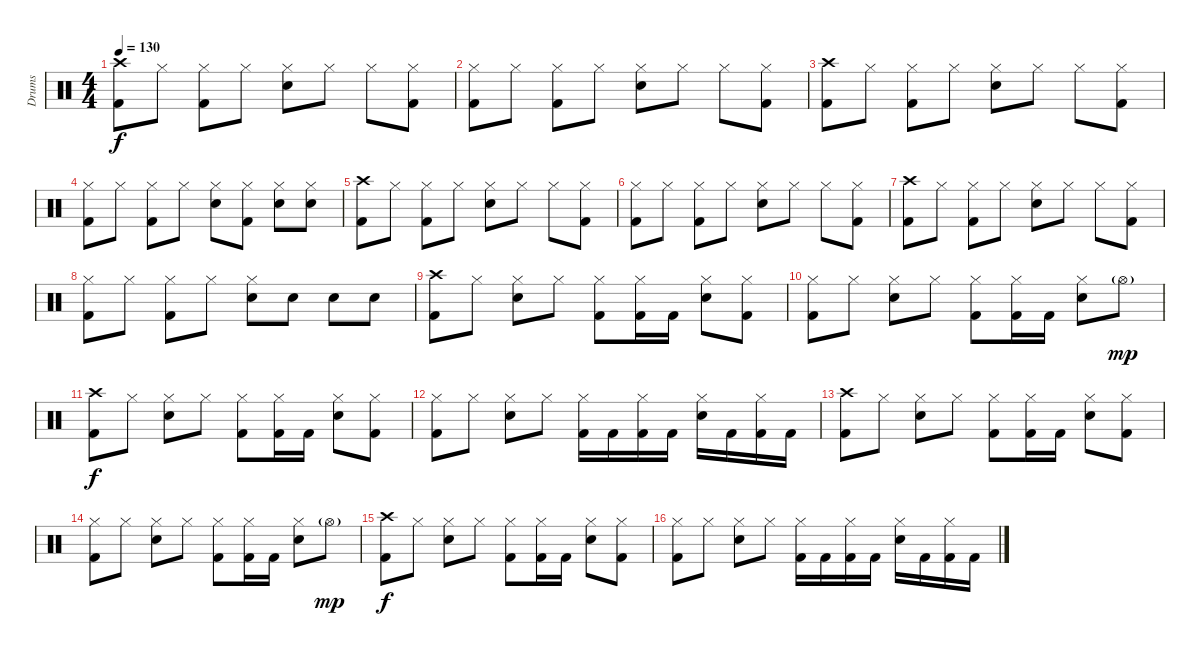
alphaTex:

\track ("Drums" "Drums") {instrument percussion}
\staff {score}
\articulation defaults
\ts (4 4)
\tempo 130
\clef neutral
\ks c
("Crash high (hit)" "Kick (hit) 2").8{dy f} "Hi-Hat (closed)".8 ("Hi-Hat (closed)" "Kick (hit) 2").8 "Hi-Hat (closed)".8 ("Electric Snare (hit)" "Hi-Hat (closed)").8 "Hi-Hat (closed)".8 "Hi-Hat (closed)".8 ("Hi-Hat (closed)" "Kick (hit) 2").8 |
("Hi-Hat (closed)" "Kick (hit) 2").8 "Hi-Hat (closed)".8 ("Kick (hit) 2" "Hi-Hat (closed)").8 "Hi-Hat (closed)".8 ("Electric Snare (hit)" "Hi-Hat (closed)").8 "Hi-Hat (closed)".8 "Hi-Hat (closed)".8 ("Hi-Hat (closed)" "Kick (hit) 2").8 |
("Crash high (hit)" "Kick (hit) 2").8 "Hi-Hat (closed)".8 ("Hi-Hat (closed)" "Kick (hit) 2").8 "Hi-Hat (closed)".8 ("Electric Snare (hit)" "Hi-Hat (closed)").8 "Hi-Hat (closed)".8 "Hi-Hat (closed)".8 ("Hi-Hat (closed)" "Kick (hit) 2").8 |
("Hi-Hat (closed)" "Kick (hit) 2").8 "Hi-Hat (closed)".8 ("Kick (hit) 2" "Hi-Hat (closed)").8 "Hi-Hat (closed)".8 ("Electric Snare (hit)" "Hi-Hat (closed)").8 ("Kick (hit) 2" "Hi-Hat (closed)").8 ("Electric Snare (hit)" "Hi-Hat (closed)").8 ("Electric Snare (hit)" "Hi-Hat (closed)").8 |
("Crash high (hit)" "Kick (hit) 2").8 "Hi-Hat (closed)".8 ("Hi-Hat (closed)" "Kick (hit) 2").8 "Hi-Hat (closed)".8 ("Electric Snare (hit)" "Hi-Hat (closed)").8 "Hi-Hat (closed)".8 "Hi-Hat (closed)".8 ("Hi-Hat (closed)" "Kick (hit) 2").8 |
("Hi-Hat (closed)" "Kick (hit) 2").8 "Hi-Hat (closed)".8 ("Kick (hit) 2" "Hi-Hat (closed)").8 "Hi-Hat (closed)".8 ("Electric Snare (hit)" "Hi-Hat (closed)").8 "Hi-Hat (closed)".8 "Hi-Hat (closed)".8 ("Hi-Hat (closed)" "Kick (hit) 2").8 |
("Crash high (hit)" "Kick (hit) 2").8 "Hi-Hat (closed)".8 ("Hi-Hat (closed)" "Kick (hit) 2").8 "Hi-Hat (closed)".8 ("Electric Snare (hit)" "Hi-Hat (closed)").8 "Hi-Hat (closed)".8 "Hi-Hat (closed)".8 ("Hi-Hat (closed)" "Kick (hit) 2").8 |
("Hi-Hat (closed)" "Kick (hit) 2").8 "Hi-Hat (closed)".8 ("Kick (hit) 2" "Hi-Hat (closed)").8 "Hi-Hat (closed)".8 ("Electric Snare (hit)" "Hi-Hat (closed)").8 "Electric Snare (hit)".8 "Electric Snare (hit)".8 "Electric Snare (hit)".8 |
("Crash high (hit)" "Kick (hit) 2").8 "Hi-Hat (closed)".8 ("Electric Snare (hit)" "Hi-Hat (closed)").8 "Hi-Hat (closed)".8 ("Hi-Hat (closed)" "Kick (hit) 2").8 ("Hi-Hat (closed)" "Kick (hit) 2").16 "Kick (hit) 2".16 ("Hi-Hat (closed)" "Electric Snare (hit)").8 ("Hi-Hat (closed)" "Kick (hit) 2").8 |
("Hi-Hat (closed)" "Kick (hit) 2").8 "Hi-Hat (closed)".8 ("Electric Snare (hit)" "Hi-Hat (closed)").8 "Hi-Hat (closed)".8 ("Hi-Hat (closed)" "Kick (hit) 2").8 ("Hi-Hat (closed)" "Kick (hit) 2").16 "Kick (hit) 2".16 ("Hi-Hat (closed)" "Electric Snare (hit)").8 "Hi-Hat (open)"{g}.8{dy mp} |
("Crash high (hit)" "Kick (hit) 2").8{dy f} "Hi-Hat (closed)".8 ("Electric Snare (hit)" "Hi-Hat (closed)").8 "Hi-Hat (closed)".8 ("Hi-Hat (closed)" "Kick (hit) 2").8 ("Hi-Hat (closed)" "Kick (hit) 2").16 "Kick (hit) 2".16 ("Hi-Hat (closed)" "Electric Snare (hit)").8 ("Hi-Hat (closed)" "Kick (hit) 2").8 |
("Hi-Hat (closed)" "Kick (hit) 2").8 "Hi-Hat (closed)".8 ("Electric Snare (hit)" "Hi-Hat (closed)").8 "Hi-Hat (closed)".8 ("Hi-Hat (closed)" "Kick (hit) 2").16 "Kick (hit) 2".16 ("Kick (hit) 2" "Hi-Hat (closed)").16 "Kick (hit) 2".16 ("Hi-Hat (closed)" "Electric Snare (hit)").16 "Kick (hit) 2".16 ("Hi-Hat (closed)" "Kick (hit) 2").16 "Kick (hit) 2".16 |
("Crash high (hit)" "Kick (hit) 2").8 "Hi-Hat (closed)".8 ("Electric Snare (hit)" "Hi-Hat (closed)").8 "Hi-Hat (closed)".8 ("Hi-Hat (closed)" "Kick (hit) 2").8 ("Hi-Hat (closed)" "Kick (hit) 2").16 "Kick (hit) 2".16 ("Hi-Hat (closed)" "Electric Snare (hit)").8 ("Hi-Hat (closed)" "Kick (hit) 2").8 |
("Hi-Hat (closed)" "Kick (hit) 2").8 "Hi-Hat (closed)".8 ("Electric Snare (hit)" "Hi-Hat (closed)").8 "Hi-Hat (closed)".8 ("Hi-Hat (closed)" "Kick (hit) 2").8 ("Hi-Hat (closed)" "Kick (hit) 2").16 "Kick (hit) 2".16 ("Hi-Hat (closed)" "Electric Snare (hit)").8 "Hi-Hat (open)"{g}.8{dy mp} |
("Crash high (hit)" "Kick (hit) 2").8{dy f} "Hi-Hat (closed)".8 ("Electric Snare (hit)" "Hi-Hat (closed)").8 "Hi-Hat (closed)".8 ("Hi-Hat (closed)" "Kick (hit) 2").8 ("Hi-Hat (closed)" "Kick (hit) 2").16 "Kick (hit) 2".16 ("Hi-Hat (closed)" "Electric Snare (hit)").8 ("Hi-Hat (closed)" "Kick (hit) 2").8 |
("Hi-Hat (closed)" "Kick (hit) 2").8 "Hi-Hat (closed)".8 ("Electric Snare (hit)" "Hi-Hat (closed)").8 "Hi-Hat (closed)".8 ("Hi-Hat (closed)" "Kick (hit) 2").16 "Kick (hit) 2".16 ("Kick (hit) 2" "Hi-Hat (closed)").16 "Kick (hit) 2".16 ("Hi-Hat (closed)" "Electric Snare (hit)").16 "Kick (hit) 2".16 ("Hi-Hat (closed)" "Kick (hit) 2").16 "Kick (hit) 2".16
